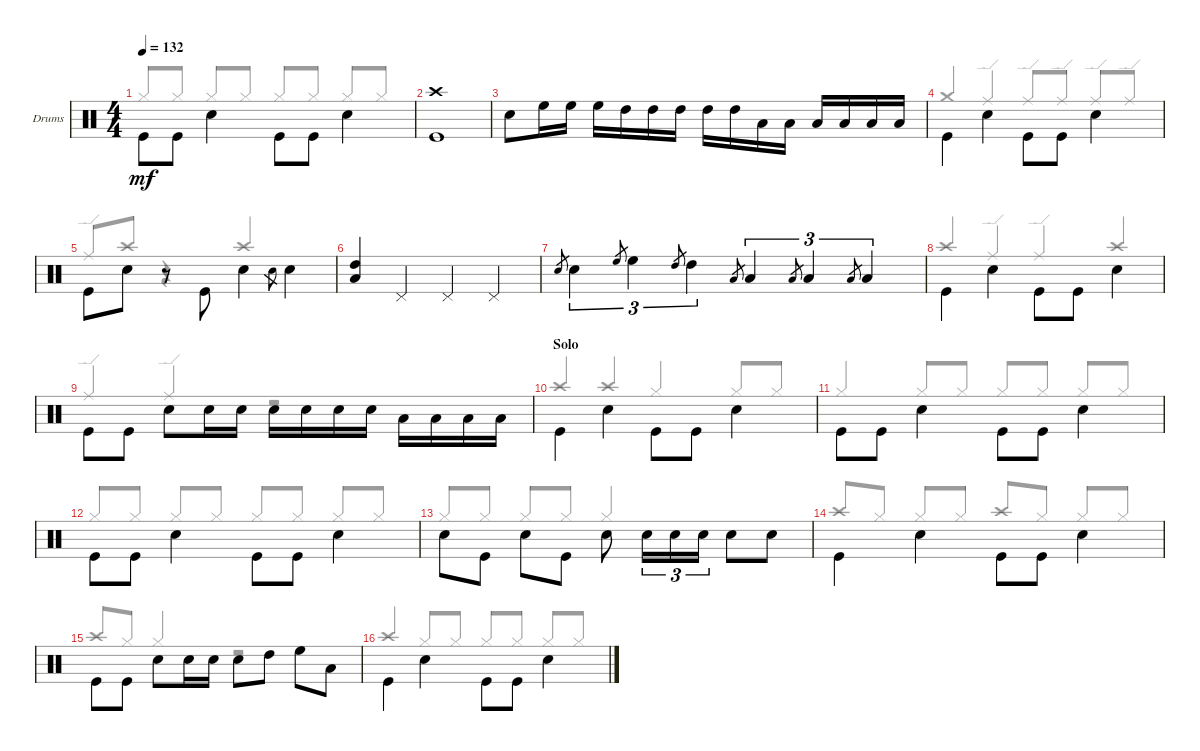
\defaultSystemsLayout 4
\bracketExtendMode groupsimilarinstruments
\firstSystemTrackNameOrientation horizontal
\otherSystemsTrackNameOrientation horizontal
\track ("PETER CRISS" "Drums") {solo instrument percussion}
\staff {score}
\articulation defaults
\voice
\ts (4 4)
\tempo 132
\clef neutral
\ks aminor "Kick (hit)".8{dy mf beam invert} "Kick (hit)".8 "Snare (hit) 2".4{beam invert} "Kick (hit)".8{beam invert} "Kick (hit)".8 "Snare (hit) 2".4{beam invert}
|
("Kick (hit)" "Crash high (hit)").1 |
"Snare (hit) 2".8 "High Floor Tom (hit)".16 "High Floor Tom (hit)".16 "High Floor Tom (hit)".16 "High Tom (hit)".16 "High Tom (hit)".16 "High Tom (hit)".16 "High Tom (hit)".16 "High Tom (hit)".16 "Low Tom (hit)".16 "Low Tom (hit)".16 "Low Tom (hit)".16 "Low Tom (hit)".16 "Low Tom (hit)".16 "Low Tom (hit)".16 |
"Kick (hit)".4{beam invert} "Snare (hit) 2".4{beam invert} "Kick (hit)".8{beam invert} "Kick (hit)".8 "Snare (hit) 2".4{beam invert} |
"Kick (hit)".8{beam invert} "Snare (hit) 2".8 r.8 "Kick (hit)".8{beam invert} "Snare (hit) 2".4{beam invert} "Snare (hit) 2".8{gr beam invert} "Snare (hit) 2".4{beam invert} |
("Low Tom (hit)" "High Tom (hit)").4{beam invert} "Pedal Hi-Hat (hit)".4 "Pedal Hi-Hat (hit)".4 "Pedal Hi-Hat (hit)".4 |
"Snare (hit) 2".8{gr} "Snare (hit) 2".4{tu (3 2)} "High Floor Tom (hit)".8{tu (3 2) gr} "High Floor Tom (hit)".4{tu (3 2)} "High Tom (hit)".8{tu (3 2) gr} "High Tom (hit)".4{tu (3 2)} "Low Tom (hit)".8{tu (3 2) gr} "Low Tom (hit)".4{tu (3 2)} "Low Tom (hit)".8{tu (3 2) gr} "Low Tom (hit)".4{tu (3 2)} "Low Tom (hit)".8{tu (3 2) gr} "Low Tom (hit)".4{tu (3 2)} |
"Kick (hit)".4{beam invert} "Snare (hit) 2".4{beam invert} "Kick (hit)".8{beam invert} "Kick (hit)".8 "Snare (hit) 2".4{beam invert} |
"Kick (hit)".8{beam invert} "Kick (hit)".8 "Snare (hit) 2".8{beam invert} "Snare (hit) 2".16 "Snare (hit) 2".16 "Snare (hit) 2".16{beam invert} "Snare (hit) 2".16 "Snare (hit) 2".16 "Snare (hit) 2".16 "Low Tom (hit)".16{beam invert} "Low Tom (hit)".16 "Low Tom (hit)".16 "Low Tom (hit)".16 |
\section ("" "Solo")
"Kick (hit)".4{beam invert} "Snare (hit) 2".4{beam invert} "Kick (hit)".8{beam invert} "Kick (hit)".8 "Snare (hit) 2".4{beam invert} |
"Kick (hit)".8{beam invert} "Kick (hit)".8 "Snare (hit) 2".4{beam invert} "Kick (hit)".8{beam invert} "Kick (hit)".8 "Snare (hit) 2".4{beam invert} |
"Kick (hit)".8{beam invert} "Kick (hit)".8 "Snare (hit) 2".4{beam invert} "Kick (hit)".8{beam invert} "Kick (hit)".8 "Snare (hit) 2".4{beam invert} |
"Snare (hit) 2".8{beam invert} "Kick (hit)".8 "Snare (hit) 2".8{beam invert} "Kick (hit)".8 "Snare (hit) 2".8{beam invert} "Snare (hit) 2".16{tu (3 2) beam invert} "Snare (hit) 2".16{tu (3 2)} "Snare (hit) 2".16{tu (3 2)} "Snare (hit) 2".8{beam invert} "Snare (hit) 2".8 |
"Kick (hit)".4{beam invert} "Snare (hit) 2".4{beam invert} "Kick (hit)".8{beam invert} "Kick (hit)".8 "Snare (hit) 2".4{beam invert} |
"Kick (hit)".8{beam invert} "Kick (hit)".8 "Snare (hit) 2".8{beam invert} "Snare (hit) 2".16 "Snare (hit) 2".16 "Snare (hit) 2".8{beam invert} "High Tom (hit)".8 "High Floor Tom (hit)".8{beam invert} "Low Tom (hit)".8 |
"Kick (hit)".4{beam invert} "Snare (hit) 2".4{beam invert} "Kick (hit)".8{beam invert} "Kick (hit)".8 "Snare (hit) 2".4{beam invert}
\voice
\clef neutral
\ottava regular
\simile none
\ks aminor "Hi-Hat (closed)".8{dy mf beam invert} "Hi-Hat (closed)".8 "Hi-Hat (closed)".8{beam invert} "Hi-Hat (closed)".8 "Hi-Hat (closed)".8{beam invert} "Hi-Hat (closed)".8 "Hi-Hat (closed)".8{beam invert} "Hi-Hat (closed)".8
|
|
|
"Crash medium (hit)".4{beam invert} "Ride (edge)".4{beam invert} "Ride (edge)".8{beam invert} "Ride (edge)".8 "Ride (edge)".8{beam invert} "Ride (edge)".8 |
"Ride (edge)".8{beam invert} "Crash high (hit)".8 r.4 "Crash high (hit)".2{beam invert} |
|
|
"Crash high (hit)".4{beam invert} "Ride (edge)".4{beam invert} "Ride (edge)".4{beam invert} "Crash high (hit)".4{beam invert} |
"Ride (edge)".4{beam invert} "Ride (edge)".4{beam invert} r.2 |
"Crash high (hit)".4{beam invert} "Crash high (hit)".4{beam invert} "Hi-Hat (closed)".4{beam invert} "Hi-Hat (closed)".8{beam invert} "Hi-Hat (closed)".8 |
"Hi-Hat (closed)".4{beam invert} "Hi-Hat (closed)".8{beam invert} "Hi-Hat (closed)".8 "Hi-Hat (closed)".8{beam invert} "Hi-Hat (closed)".8 "Hi-Hat (closed)".8{beam invert} "Hi-Hat (closed)".8 |
"Hi-Hat (closed)".8{beam invert} "Hi-Hat (closed)".8 "Hi-Hat (closed)".8{beam invert} "Hi-Hat (closed)".8 "Hi-Hat (closed)".8{beam invert} "Hi-Hat (closed)".8 "Hi-Hat (closed)".8{beam invert} "Hi-Hat (closed)".8 |
"Hi-Hat (closed)".8{beam invert} "Hi-Hat (closed)".8 "Hi-Hat (closed)".8{beam invert} "Hi-Hat (closed)".8 "Hi-Hat (closed)".2{beam invert} |
"Crash high (hit)".8{beam invert} "Hi-Hat (closed)".8 "Hi-Hat (closed)".8{beam invert} "Hi-Hat (closed)".8 "Crash high (hit)".8{beam invert} "Hi-Hat (closed)".8 "Hi-Hat (closed)".8{beam invert} "Hi-Hat (closed)".8 |
"Crash high (hit)".8{beam invert} "Hi-Hat (closed)".8 "Hi-Hat (closed)".4{beam invert} r.2 |
"Crash high (hit)".4{beam invert} "Hi-Hat (closed)".8{beam invert} "Hi-Hat (closed)".8 "Hi-Hat (closed)".8{beam invert} "Hi-Hat (closed)".8 "Hi-Hat (closed)".8{beam invert} "Hi-Hat (closed)".8
